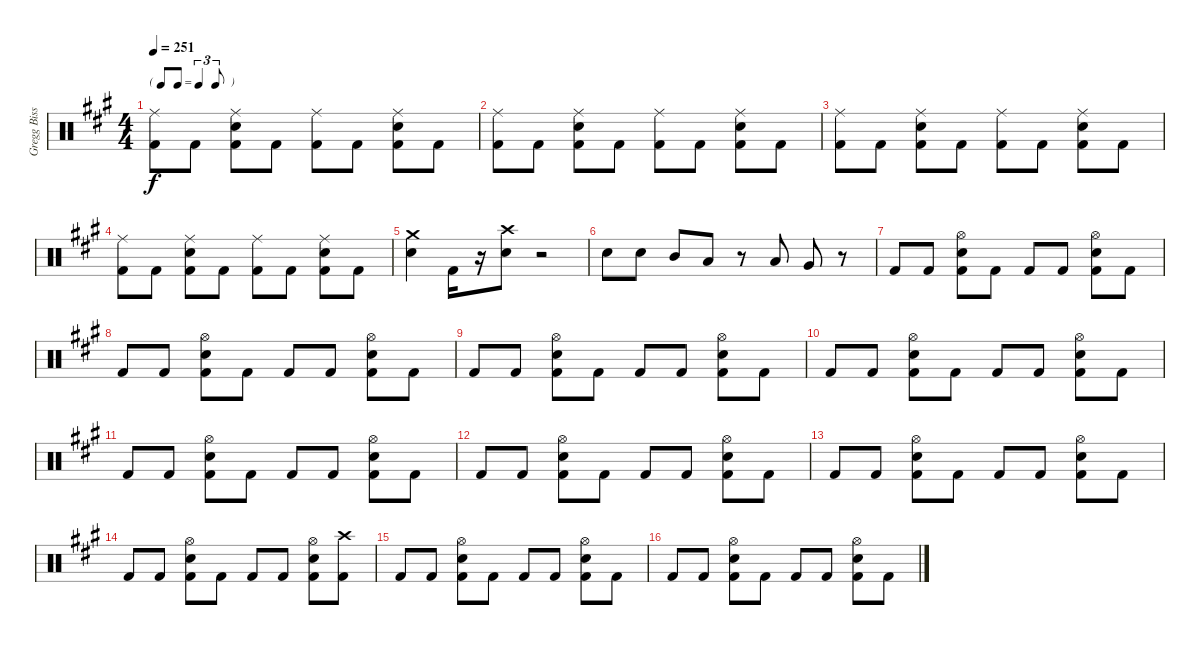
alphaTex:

\track ("Gregg Bissonette" "Gregg Biss") {instrument percussion}
\staff {score}
\articulation defaults
\ts (4 4)
\tf triplet8th
\tempo 251
\clef neutral
\ks f#minor
("Ride (middle)" "Kick (hit) 2").8{dy f} "Kick (hit) 2".8 ("Ride (middle)" "Electric Snare (hit)" "Kick (hit) 2").8 "Kick (hit) 2".8 ("Ride (middle)" "Kick (hit) 2").8 "Kick (hit) 2".8 ("Ride (middle)" "Electric Snare (hit)" "Kick (hit) 2").8 "Kick (hit) 2".8 |
("Ride (middle)" "Kick (hit) 2").8 "Kick (hit) 2".8 ("Ride (middle)" "Electric Snare (hit)" "Kick (hit) 2").8 "Kick (hit) 2".8 ("Ride (middle)" "Kick (hit) 2").8 "Kick (hit) 2".8 ("Ride (middle)" "Electric Snare (hit)" "Kick (hit) 2").8 "Kick (hit) 2".8 |
("Ride (middle)" "Kick (hit) 2").8 "Kick (hit) 2".8 ("Ride (middle)" "Electric Snare (hit)" "Kick (hit) 2").8 "Kick (hit) 2".8 ("Ride (middle)" "Kick (hit) 2").8 "Kick (hit) 2".8 ("Ride (middle)" "Electric Snare (hit)" "Kick (hit) 2").8 "Kick (hit) 2".8 |
("Ride (middle)" "Kick (hit) 2").8 "Kick (hit) 2".8 ("Ride (middle)" "Electric Snare (hit)" "Kick (hit) 2").8 "Kick (hit) 2".8 ("Ride (middle)" "Kick (hit) 2").8 "Kick (hit) 2".8 ("Ride (middle)" "Electric Snare (hit)" "Kick (hit) 2").8 "Kick (hit) 2".8 |
("Crash medium (hit)" "Electric Snare (hit)").4 "Kick (hit) 2".16 r.16 ("Crash high (hit)" "Electric Snare (hit)").8 r.2 |
"Electric Snare (hit)".8 "Electric Snare (hit)".8 "Mid Tom (hit)".8 "Low Tom (hit)".8 r.8 "Low Tom (hit)".8 "Very Low Tom (hit)".8 r.8 |
"Kick (hit) 2".8 "Kick (hit) 2".8 ("Hi-Hat (open)" "Electric Snare (hit)" "Kick (hit) 2").8 "Kick (hit) 2".8 "Kick (hit) 2".8 "Kick (hit) 2".8 ("Hi-Hat (open)" "Electric Snare (hit)" "Kick (hit) 2").8 "Kick (hit) 2".8 |
"Kick (hit) 2".8 "Kick (hit) 2".8 ("Hi-Hat (open)" "Electric Snare (hit)" "Kick (hit) 2").8 "Kick (hit) 2".8 "Kick (hit) 2".8 "Kick (hit) 2".8 ("Hi-Hat (open)" "Electric Snare (hit)" "Kick (hit) 2").8 "Kick (hit) 2".8 |
"Kick (hit) 2".8 "Kick (hit) 2".8 ("Hi-Hat (open)" "Electric Snare (hit)" "Kick (hit) 2").8 "Kick (hit) 2".8 "Kick (hit) 2".8 "Kick (hit) 2".8 ("Hi-Hat (open)" "Electric Snare (hit)" "Kick (hit) 2").8 "Kick (hit) 2".8 |
"Kick (hit) 2".8 "Kick (hit) 2".8 ("Hi-Hat (open)" "Electric Snare (hit)" "Kick (hit) 2").8 "Kick (hit) 2".8 "Kick (hit) 2".8 "Kick (hit) 2".8 ("Hi-Hat (open)" "Electric Snare (hit)" "Kick (hit) 2").8 "Kick (hit) 2".8 |
"Kick (hit) 2".8 "Kick (hit) 2".8 ("Hi-Hat (open)" "Electric Snare (hit)" "Kick (hit) 2").8 "Kick (hit) 2".8 "Kick (hit) 2".8 "Kick (hit) 2".8 ("Hi-Hat (open)" "Electric Snare (hit)" "Kick (hit) 2").8 "Kick (hit) 2".8 |
"Kick (hit) 2".8 "Kick (hit) 2".8 ("Hi-Hat (open)" "Electric Snare (hit)" "Kick (hit) 2").8 "Kick (hit) 2".8 "Kick (hit) 2".8 "Kick (hit) 2".8 ("Hi-Hat (open)" "Electric Snare (hit)" "Kick (hit) 2").8 "Kick (hit) 2".8 |
"Kick (hit) 2".8 "Kick (hit) 2".8 ("Hi-Hat (open)" "Electric Snare (hit)" "Kick (hit) 2").8 "Kick (hit) 2".8 "Kick (hit) 2".8 "Kick (hit) 2".8 ("Hi-Hat (open)" "Electric Snare (hit)" "Kick (hit) 2").8 "Kick (hit) 2".8 |
"Kick (hit) 2".8 "Kick (hit) 2".8 ("Hi-Hat (open)" "Electric Snare (hit)" "Kick (hit) 2").8 "Kick (hit) 2".8 "Kick (hit) 2".8 "Kick (hit) 2".8 ("Hi-Hat (open)" "Electric Snare (hit)" "Kick (hit) 2").8 ("Crash high (hit)" "Kick (hit) 2").8 |
"Kick (hit) 2".8 "Kick (hit) 2".8 ("Hi-Hat (open)" "Electric Snare (hit)" "Kick (hit) 2").8 "Kick (hit) 2".8 "Kick (hit) 2".8 "Kick (hit) 2".8 ("Hi-Hat (open)" "Electric Snare (hit)" "Kick (hit) 2").8 "Kick (hit) 2".8 |
"Kick (hit) 2".8 "Kick (hit) 2".8 ("Hi-Hat (open)" "Electric Snare (hit)" "Kick (hit) 2").8 "Kick (hit) 2".8 "Kick (hit) 2".8 "Kick (hit) 2".8 ("Hi-Hat (open)" "Electric Snare (hit)" "Kick (hit) 2").8 "Kick (hit) 2".8
